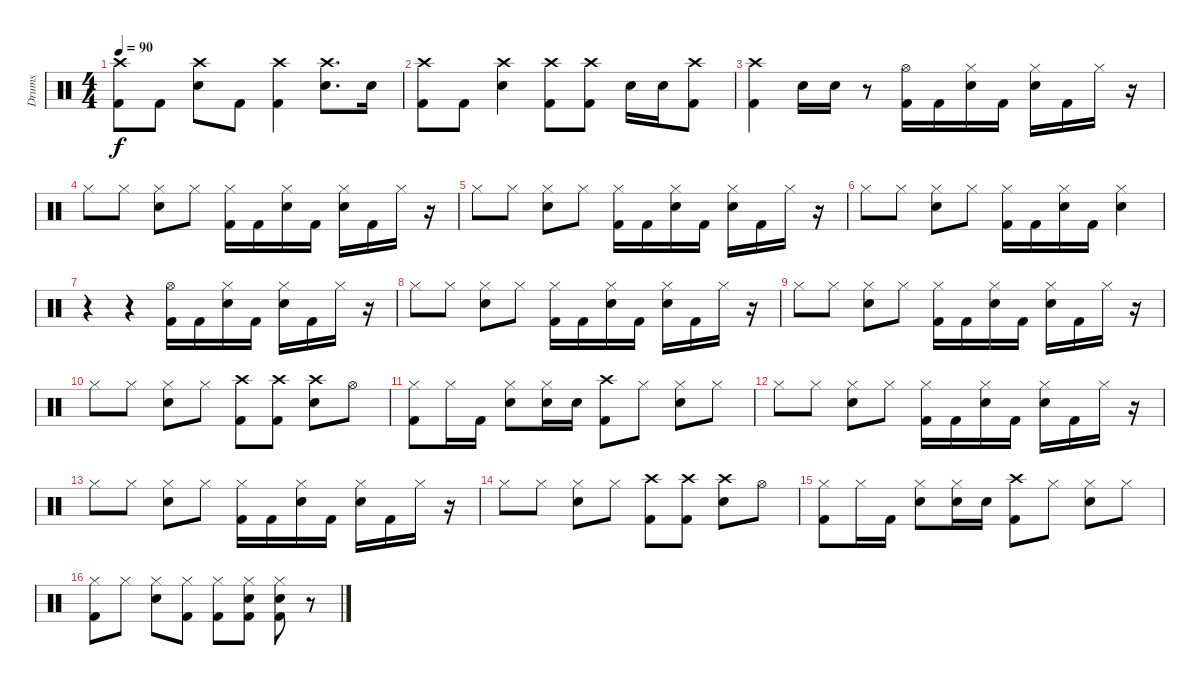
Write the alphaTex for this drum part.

\track ("Drums" "Drums") {instrument percussion}
\staff {score}
\articulation defaults
\ts (4 4)
\tempo 90
\clef neutral
\ks c
("Crash high (hit)" "Kick (hit) 2").8{dy f} "Kick (hit) 2".8 ("Crash high (hit)" "Snare (hit) 2").8 "Kick (hit) 2".8 ("Crash high (hit)" "Kick (hit) 2").4 ("Crash high (hit)" "Snare (hit) 2").8{d} "Snare (hit) 2".16 |
("Crash high (hit)" "Kick (hit) 2").8 "Kick (hit) 2".8 ("Crash high (hit)" "Snare (hit) 2").4 ("Crash high (hit)" "Kick (hit) 2").8 ("Crash high (hit)" "Kick (hit) 2").8 "Snare (hit) 2".16 "Snare (hit) 2".16 ("Crash high (hit)" "Kick (hit) 2").8 |
("Crash high (hit)" "Kick (hit) 2").4 "Snare (hit) 2".16 "Snare (hit) 2".16 r.8 ("Hi-Hat (open)" "Kick (hit) 2").16 "Kick (hit) 2".16 ("Hi-Hat (closed)" "Snare (hit) 2").16 "Kick (hit) 2".16 ("Hi-Hat (closed)" "Snare (hit) 2").16 "Kick (hit) 2".16 "Hi-Hat (closed)".16 r.16 |
"Hi-Hat (closed)".8 "Hi-Hat (closed)".8 ("Hi-Hat (closed)" "Snare (hit) 2").8 "Hi-Hat (closed)".8 ("Hi-Hat (closed)" "Kick (hit) 2").16 "Kick (hit) 2".16 ("Hi-Hat (closed)" "Snare (hit) 2").16 "Kick (hit) 2".16 ("Hi-Hat (closed)" "Snare (hit) 2").16 "Kick (hit) 2".16 "Hi-Hat (closed)".16 r.16 |
"Hi-Hat (closed)".8 "Hi-Hat (closed)".8 ("Hi-Hat (closed)" "Snare (hit) 2").8 "Hi-Hat (closed)".8 ("Hi-Hat (closed)" "Kick (hit) 2").16 "Kick (hit) 2".16 ("Hi-Hat (closed)" "Snare (hit) 2").16 "Kick (hit) 2".16 ("Hi-Hat (closed)" "Snare (hit) 2").16 "Kick (hit) 2".16 "Hi-Hat (closed)".16 r.16 |
"Hi-Hat (closed)".8 "Hi-Hat (closed)".8 ("Hi-Hat (closed)" "Snare (hit) 2").8 "Hi-Hat (closed)".8 ("Hi-Hat (closed)" "Kick (hit) 2").16 "Kick (hit) 2".16 ("Hi-Hat (closed)" "Snare (hit) 2").16 "Kick (hit) 2".16 ("Hi-Hat (closed)" "Snare (hit) 2").4 |
r.4 r.4 ("Hi-Hat (open)" "Kick (hit) 2").16 "Kick (hit) 2".16 ("Hi-Hat (closed)" "Snare (hit) 2").16 "Kick (hit) 2".16 ("Hi-Hat (closed)" "Snare (hit) 2").16 "Kick (hit) 2".16 "Hi-Hat (closed)".16 r.16 |
"Hi-Hat (closed)".8 "Hi-Hat (closed)".8 ("Hi-Hat (closed)" "Snare (hit) 2").8 "Hi-Hat (closed)".8 ("Hi-Hat (closed)" "Kick (hit) 2").16 "Kick (hit) 2".16 ("Hi-Hat (closed)" "Snare (hit) 2").16 "Kick (hit) 2".16 ("Hi-Hat (closed)" "Snare (hit) 2").16 "Kick (hit) 2".16 "Hi-Hat (closed)".16 r.16 |
"Hi-Hat (closed)".8 "Hi-Hat (closed)".8 ("Hi-Hat (closed)" "Snare (hit) 2").8 "Hi-Hat (closed)".8 ("Hi-Hat (closed)" "Kick (hit) 2").16 "Kick (hit) 2".16 ("Hi-Hat (closed)" "Snare (hit) 2").16 "Kick (hit) 2".16 ("Hi-Hat (closed)" "Snare (hit) 2").16 "Kick (hit) 2".16 "Hi-Hat (closed)".16 r.16 |
"Hi-Hat (closed)".8 "Hi-Hat (closed)".8 ("Hi-Hat (closed)" "Snare (hit) 2").8 "Hi-Hat (closed)".8 ("Crash high (hit)" "Kick (hit) 2").8 ("Crash high (hit)" "Kick (hit) 2").8 ("Crash high (hit)" "Snare (hit) 2").8 "Hi-Hat (open)".8 |
("Hi-Hat (closed)" "Kick (hit) 2").8 "Hi-Hat (closed)".16 "Kick (hit) 2".16 ("Hi-Hat (closed)" "Snare (hit) 2").8 ("Hi-Hat (closed)" "Snare (hit) 2").16 "Snare (hit) 2".16 ("Crash high (hit)" "Kick (hit) 2").8 "Hi-Hat (closed)".8 ("Hi-Hat (closed)" "Snare (hit) 2").8 "Hi-Hat (closed)".8 |
"Hi-Hat (closed)".8 "Hi-Hat (closed)".8 ("Hi-Hat (closed)" "Snare (hit) 2").8 "Hi-Hat (closed)".8 ("Hi-Hat (closed)" "Kick (hit) 2").16 "Kick (hit) 2".16 ("Hi-Hat (closed)" "Snare (hit) 2").16 "Kick (hit) 2".16 ("Hi-Hat (closed)" "Snare (hit) 2").16 "Kick (hit) 2".16 "Hi-Hat (closed)".16 r.16 |
"Hi-Hat (closed)".8 "Hi-Hat (closed)".8 ("Hi-Hat (closed)" "Snare (hit) 2").8 "Hi-Hat (closed)".8 ("Hi-Hat (closed)" "Kick (hit) 2").16 "Kick (hit) 2".16 ("Hi-Hat (closed)" "Snare (hit) 2").16 "Kick (hit) 2".16 ("Hi-Hat (closed)" "Snare (hit) 2").16 "Kick (hit) 2".16 "Hi-Hat (closed)".16 r.16 |
"Hi-Hat (closed)".8 "Hi-Hat (closed)".8 ("Hi-Hat (closed)" "Snare (hit) 2").8 "Hi-Hat (closed)".8 ("Crash high (hit)" "Kick (hit) 2").8 ("Crash high (hit)" "Kick (hit) 2").8 ("Crash high (hit)" "Snare (hit) 2").8 "Hi-Hat (open)".8 |
("Hi-Hat (closed)" "Kick (hit) 2").8 "Hi-Hat (closed)".16 "Kick (hit) 2".16 ("Hi-Hat (closed)" "Snare (hit) 2").8 ("Hi-Hat (closed)" "Snare (hit) 2").16 "Snare (hit) 2".16 ("Crash high (hit)" "Kick (hit) 2").8 "Hi-Hat (closed)".8 ("Hi-Hat (closed)" "Snare (hit) 2").8 "Hi-Hat (closed)".8 |
("Hi-Hat (closed)" "Kick (hit) 2").8 "Hi-Hat (closed)".8 ("Hi-Hat (closed)" "Snare (hit) 2").8 ("Hi-Hat (closed)" "Kick (hit) 2").8 ("Hi-Hat (closed)" "Kick (hit) 2").8 ("Hi-Hat (closed)" "Snare (hit) 2" "Kick (hit) 2").8 ("Hi-Hat (closed)" "Snare (hit) 2" "Kick (hit) 2").8 r.8
